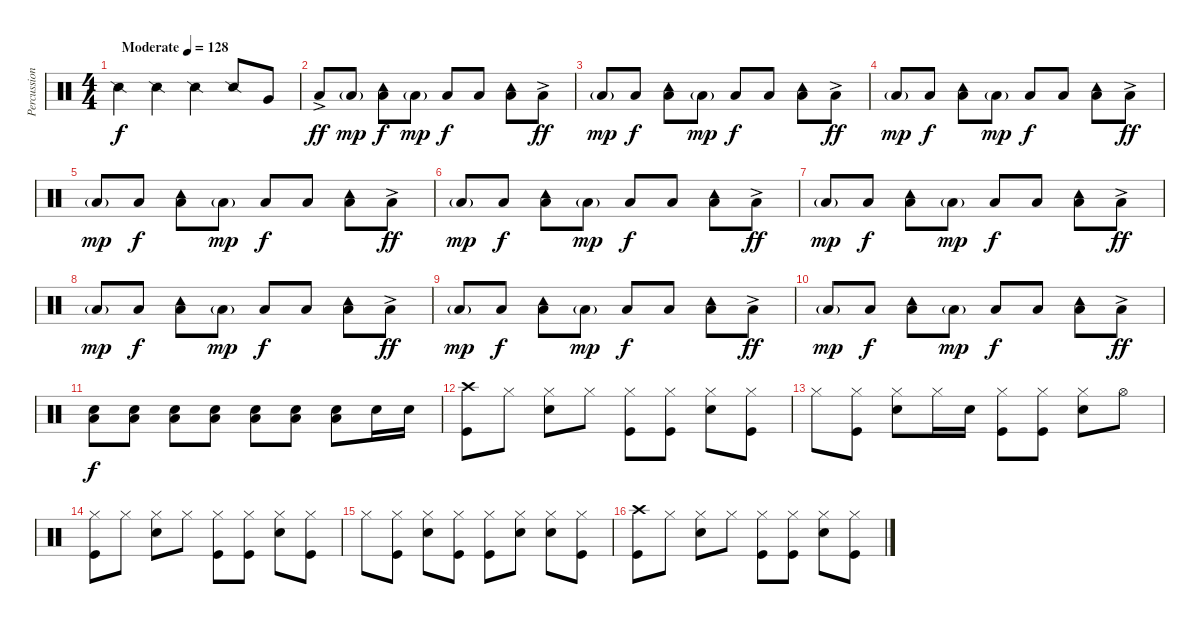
\track ("Percussion" "Percussion") {instrument percussion}
\staff {score}
\articulation defaults
\ts (4 4)
\tempo (128 "Moderate")
\clef neutral
\ks c "Snare (side stick) 2".4{dy f} "Snare (side stick) 2".4 "Snare (side stick) 2".4 "Snare (side stick) 2".8 "Very Low Tom (hit)".8
|
"Low Floor Tom (hit)"{ac}.8{dy ff} "Low Floor Tom (hit)"{g}.8{dy mp} ("Tambourine (hit)" "Low Floor Tom (hit)").8{dy f} "Low Floor Tom (hit)"{g}.8{dy mp} "Low Floor Tom (hit)".8{dy f} "Low Floor Tom (hit)".8 ("Tambourine (hit)" "Low Floor Tom (hit)").8 "Low Floor Tom (hit)"{ac}.8{dy ff} |
"Low Floor Tom (hit)"{g}.8{dy mp} "Low Floor Tom (hit)".8{dy f} ("Tambourine (hit)" "Low Floor Tom (hit)").8 "Low Floor Tom (hit)"{g}.8{dy mp} "Low Floor Tom (hit)".8{dy f} "Low Floor Tom (hit)".8 ("Tambourine (hit)" "Low Floor Tom (hit)").8 "Low Floor Tom (hit)"{ac}.8{dy ff} |
"Low Floor Tom (hit)"{g}.8{dy mp} "Low Floor Tom (hit)".8{dy f} ("Tambourine (hit)" "Low Floor Tom (hit)").8 "Low Floor Tom (hit)"{g}.8{dy mp} "Low Floor Tom (hit)".8{dy f} "Low Floor Tom (hit)".8 ("Tambourine (hit)" "Low Floor Tom (hit)").8 "Low Floor Tom (hit)"{ac}.8{dy ff} |
"Low Floor Tom (hit)"{g}.8{dy mp} "Low Floor Tom (hit)".8{dy f} ("Tambourine (hit)" "Low Floor Tom (hit)").8 "Low Floor Tom (hit)"{g}.8{dy mp} "Low Floor Tom (hit)".8{dy f} "Low Floor Tom (hit)".8 ("Tambourine (hit)" "Low Floor Tom (hit)").8 "Low Floor Tom (hit)"{ac}.8{dy ff} |
"Low Floor Tom (hit)"{g}.8{dy mp} "Low Floor Tom (hit)".8{dy f} ("Tambourine (hit)" "Low Floor Tom (hit)").8 "Low Floor Tom (hit)"{g}.8{dy mp} "Low Floor Tom (hit)".8{dy f} "Low Floor Tom (hit)".8 ("Tambourine (hit)" "Low Floor Tom (hit)").8 "Low Floor Tom (hit)"{ac}.8{dy ff} |
"Low Floor Tom (hit)"{g}.8{dy mp} "Low Floor Tom (hit)".8{dy f} ("Tambourine (hit)" "Low Floor Tom (hit)").8 "Low Floor Tom (hit)"{g}.8{dy mp} "Low Floor Tom (hit)".8{dy f} "Low Floor Tom (hit)".8 ("Tambourine (hit)" "Low Floor Tom (hit)").8 "Low Floor Tom (hit)"{ac}.8{dy ff} |
"Low Floor Tom (hit)"{g}.8{dy mp} "Low Floor Tom (hit)".8{dy f} ("Tambourine (hit)" "Low Floor Tom (hit)").8 "Low Floor Tom (hit)"{g}.8{dy mp} "Low Floor Tom (hit)".8{dy f} "Low Floor Tom (hit)".8 ("Tambourine (hit)" "Low Floor Tom (hit)").8 "Low Floor Tom (hit)"{ac}.8{dy ff} |
"Low Floor Tom (hit)"{g}.8{dy mp} "Low Floor Tom (hit)".8{dy f} ("Tambourine (hit)" "Low Floor Tom (hit)").8 "Low Floor Tom (hit)"{g}.8{dy mp} "Low Floor Tom (hit)".8{dy f} "Low Floor Tom (hit)".8 ("Tambourine (hit)" "Low Floor Tom (hit)").8 "Low Floor Tom (hit)"{ac}.8{dy ff} |
"Low Floor Tom (hit)"{g}.8{dy mp} "Low Floor Tom (hit)".8{dy f} ("Tambourine (hit)" "Low Floor Tom (hit)").8 "Low Floor Tom (hit)"{g}.8{dy mp} "Low Floor Tom (hit)".8{dy f} "Low Floor Tom (hit)".8 ("Tambourine (hit)" "Low Floor Tom (hit)").8 "Low Floor Tom (hit)"{ac}.8{dy ff} |
("Snare (hit) 2" "Low Floor Tom (hit)").8{dy f} ("Snare (hit) 2" "Low Floor Tom (hit)").8 ("Snare (hit) 2" "Low Floor Tom (hit)").8 ("Snare (hit) 2" "Low Floor Tom (hit)").8 ("Snare (hit) 2" "Low Floor Tom (hit)").8 ("Snare (hit) 2" "Low Floor Tom (hit)").8 ("Snare (hit) 2" "Low Floor Tom (hit)").8 "Snare (hit) 2".16 "Snare (hit) 2".16 |
("Crash high (hit)" "Kick (hit)").8 "Hi-Hat (closed)".8 ("Hi-Hat (closed)" "Snare (hit) 2").8 "Hi-Hat (closed)".8 ("Hi-Hat (closed)" "Kick (hit)").8 ("Hi-Hat (closed)" "Kick (hit)").8 ("Hi-Hat (closed)" "Snare (hit) 2").8 ("Hi-Hat (closed)" "Kick (hit)").8 |
"Hi-Hat (closed)".8 ("Hi-Hat (closed)" "Kick (hit)").8 ("Hi-Hat (closed)" "Snare (hit) 2").8 "Hi-Hat (closed)".16 "Snare (hit) 2".16 ("Hi-Hat (closed)" "Kick (hit)").8 ("Hi-Hat (closed)" "Kick (hit)").8 ("Hi-Hat (closed)" "Snare (hit) 2").8 "Hi-Hat (open)".8 |
("Hi-Hat (closed)" "Kick (hit)").8 "Hi-Hat (closed)".8 ("Hi-Hat (closed)" "Snare (hit) 2").8 "Hi-Hat (closed)".8 ("Hi-Hat (closed)" "Kick (hit)").8 ("Hi-Hat (closed)" "Kick (hit)").8 ("Hi-Hat (closed)" "Snare (hit) 2").8 ("Hi-Hat (closed)" "Kick (hit)").8 |
"Hi-Hat (closed)".8 ("Hi-Hat (closed)" "Kick (hit)").8 ("Hi-Hat (closed)" "Snare (hit) 2").8 ("Hi-Hat (closed)" "Kick (hit)").8 ("Hi-Hat (closed)" "Kick (hit)").8 ("Hi-Hat (closed)" "Snare (hit) 2").8 ("Hi-Hat (closed)" "Snare (hit) 2").8 ("Hi-Hat (closed)" "Kick (hit)").8 |
("Crash high (hit)" "Kick (hit)").8 "Hi-Hat (closed)".8 ("Hi-Hat (closed)" "Snare (hit) 2").8 "Hi-Hat (closed)".8 ("Hi-Hat (closed)" "Kick (hit)").8 ("Hi-Hat (closed)" "Kick (hit)").8 ("Hi-Hat (closed)" "Snare (hit) 2").8 ("Hi-Hat (closed)" "Kick (hit)").8
